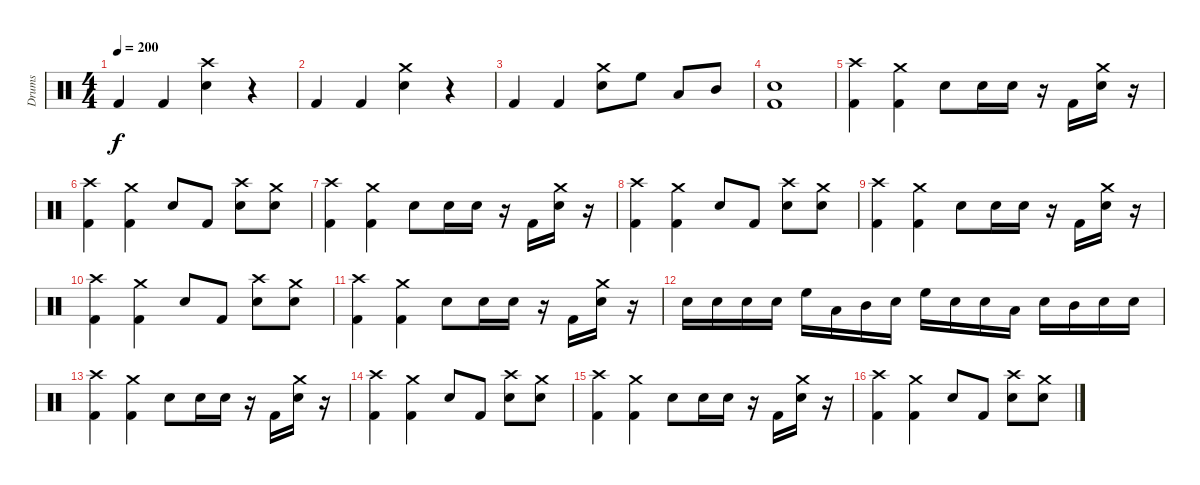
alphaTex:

\track ("Drums" "Drums") {instrument percussion}
\staff {score}
\articulation defaults
\ts (4 4)
\tempo 200
\clef neutral
\ks c "Kick (hit) 2".4{dy f} "Kick (hit) 2".4
("Electric Snare (hit)" "Crash high (hit)").4 r.4 |
"Kick (hit) 2".4 "Kick (hit) 2".4 ("Electric Snare (hit)" "Crash medium (hit)").4 r.4 |
"Kick (hit) 2".4 "Kick (hit) 2".4 ("Electric Snare (hit)" "Crash medium (hit)").8 "High Floor Tom (hit)".8 "Low Tom (hit)".8 "Mid Tom (hit)".8 |
("Electric Snare (hit)" "Kick (hit) 2").1 |
("Crash high (hit)" "Kick (hit) 2").4 ("Crash medium (hit)" "Kick (hit) 2").4 "Electric Snare (hit)".8 "Electric Snare (hit)".16 "Electric Snare (hit)".16 r.16 "Kick (hit) 2".16 ("Electric Snare (hit)" "Crash medium (hit)").16 r.16 |
("Crash high (hit)" "Kick (hit) 2").4 ("Crash medium (hit)" "Kick (hit) 2").4 "Electric Snare (hit)".8 "Kick (hit) 2".8 ("Electric Snare (hit)" "Crash high (hit)").8 ("Electric Snare (hit)" "Crash medium (hit)").8 |
("Crash high (hit)" "Kick (hit) 2").4 ("Crash medium (hit)" "Kick (hit) 2").4 "Electric Snare (hit)".8 "Electric Snare (hit)".16 "Electric Snare (hit)".16 r.16 "Kick (hit) 2".16 ("Electric Snare (hit)" "Crash medium (hit)").16 r.16 |
("Crash high (hit)" "Kick (hit) 2").4 ("Crash medium (hit)" "Kick (hit) 2").4 "Electric Snare (hit)".8 "Kick (hit) 2".8 ("Electric Snare (hit)" "Crash high (hit)").8 ("Electric Snare (hit)" "Crash medium (hit)").8 |
("Crash high (hit)" "Kick (hit) 2").4 ("Crash medium (hit)" "Kick (hit) 2").4 "Electric Snare (hit)".8 "Electric Snare (hit)".16 "Electric Snare (hit)".16 r.16 "Kick (hit) 2".16 ("Electric Snare (hit)" "Crash medium (hit)").16 r.16 |
("Crash high (hit)" "Kick (hit) 2").4 ("Crash medium (hit)" "Kick (hit) 2").4 "Electric Snare (hit)".8 "Kick (hit) 2".8 ("Electric Snare (hit)" "Crash high (hit)").8 ("Electric Snare (hit)" "Crash medium (hit)").8 |
("Crash high (hit)" "Kick (hit) 2").4 ("Crash medium (hit)" "Kick (hit) 2").4 "Electric Snare (hit)".8 "Electric Snare (hit)".16 "Electric Snare (hit)".16 r.16 "Kick (hit) 2".16 ("Electric Snare (hit)" "Crash medium (hit)").16 r.16 |
"Electric Snare (hit)".16 "Electric Snare (hit)".16 "Electric Snare (hit)".16 "Electric Snare (hit)".16 "High Floor Tom (hit)".16 "Low Tom (hit)".16 "Mid Tom (hit)".16 "Electric Snare (hit)".16 "High Floor Tom (hit)".16 "Electric Snare (hit)".16 "Electric Snare (hit)".16 "Low Tom (hit)".16 "Electric Snare (hit)".16 "Mid Tom (hit)".16 "Electric Snare (hit)".16 "Electric Snare (hit)".16 |
("Crash high (hit)" "Kick (hit) 2").4 ("Crash medium (hit)" "Kick (hit) 2").4 "Electric Snare (hit)".8 "Electric Snare (hit)".16 "Electric Snare (hit)".16 r.16 "Kick (hit) 2".16 ("Electric Snare (hit)" "Crash medium (hit)").16 r.16 |
("Crash high (hit)" "Kick (hit) 2").4 ("Crash medium (hit)" "Kick (hit) 2").4 "Electric Snare (hit)".8 "Kick (hit) 2".8 ("Electric Snare (hit)" "Crash high (hit)").8 ("Electric Snare (hit)" "Crash medium (hit)").8 |
("Crash high (hit)" "Kick (hit) 2").4 ("Crash medium (hit)" "Kick (hit) 2").4 "Electric Snare (hit)".8 "Electric Snare (hit)".16 "Electric Snare (hit)".16 r.16 "Kick (hit) 2".16 ("Electric Snare (hit)" "Crash medium (hit)").16 r.16 |
("Crash high (hit)" "Kick (hit) 2").4 ("Crash medium (hit)" "Kick (hit) 2").4 "Electric Snare (hit)".8 "Kick (hit) 2".8 ("Electric Snare (hit)" "Crash high (hit)").8 ("Electric Snare (hit)" "Crash medium (hit)").8
